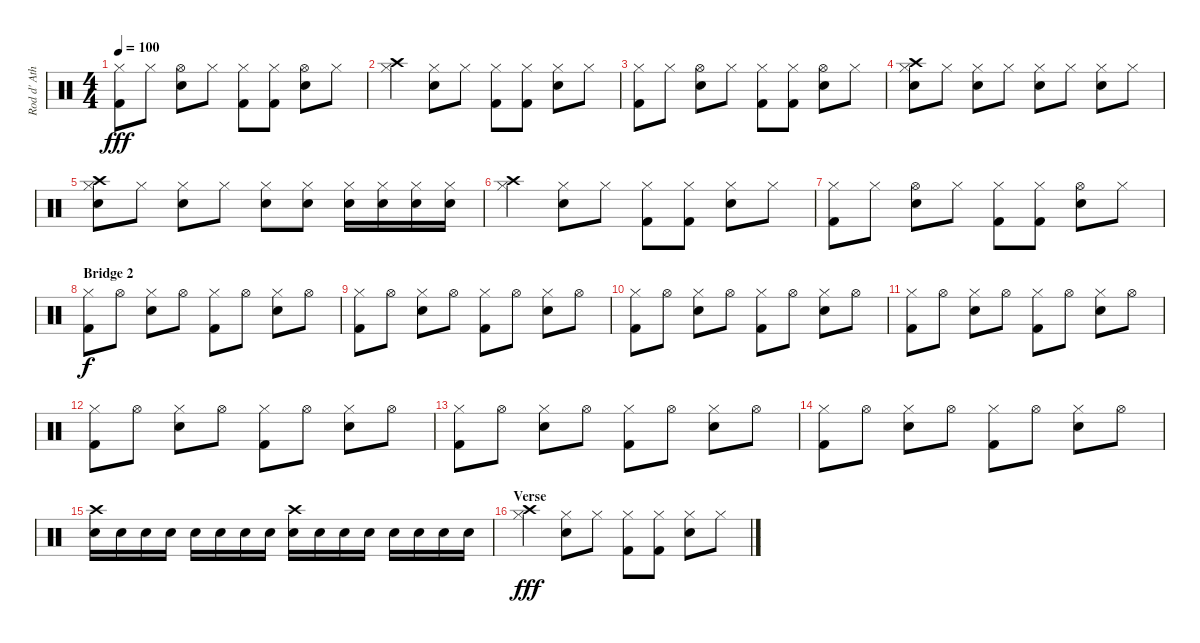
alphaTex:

\track ("Rod d' Ath" "Rod d' Ath") {instrument percussion}
\staff {score}
\articulation defaults
\ts (4 4)
\tempo 100
\clef neutral
\ks c
("Kick (hit) 2" "Hi-Hat (closed)").8{dy fff} "Hi-Hat (closed)".8 ("Hi-Hat (open)" "Snare (hit) 2").8 "Hi-Hat (closed)".8 ("Kick (hit) 2" "Hi-Hat (closed)").8 ("Kick (hit) 2" "Hi-Hat (closed)").8 ("Snare (hit) 2" "Hi-Hat (open)").8 "Hi-Hat (closed)".8 |
("Crash high (hit)" "Hi-Hat (closed)").4 ("Snare (hit) 2" "Hi-Hat (closed)").8 "Hi-Hat (closed)".8 ("Kick (hit) 2" "Hi-Hat (closed)").8 ("Kick (hit) 2" "Hi-Hat (closed)").8 ("Snare (hit) 2" "Hi-Hat (closed)").8 "Hi-Hat (closed)".8 |
("Kick (hit) 2" "Hi-Hat (closed)").8 "Hi-Hat (closed)".8 ("Hi-Hat (open)" "Snare (hit) 2").8 "Hi-Hat (closed)".8 ("Kick (hit) 2" "Hi-Hat (closed)").8 ("Kick (hit) 2" "Hi-Hat (closed)").8 ("Snare (hit) 2" "Hi-Hat (open)").8 "Hi-Hat (closed)".8 |
("Snare (hit) 2" "Hi-Hat (closed)" "Crash high (hit)").8{volume 16} "Hi-Hat (closed)".8 ("Snare (hit) 2" "Hi-Hat (closed)").8 "Hi-Hat (closed)".8 ("Snare (hit) 2" "Hi-Hat (closed)").8 "Hi-Hat (closed)".8 ("Snare (hit) 2" "Hi-Hat (closed)").8 "Hi-Hat (closed)".8 |
("Snare (hit) 2" "Hi-Hat (closed)" "Crash high (hit)").8 "Hi-Hat (closed)".8 ("Snare (hit) 2" "Hi-Hat (closed)").8 "Hi-Hat (closed)".8 ("Snare (hit) 2" "Hi-Hat (closed)").8 ("Snare (hit) 2" "Hi-Hat (closed)").8 ("Snare (hit) 2" "Hi-Hat (closed)").16 ("Snare (hit) 2" "Hi-Hat (closed)").16 ("Snare (hit) 2" "Hi-Hat (closed)").16 ("Snare (hit) 2" "Hi-Hat (closed)").16 |
("Crash high (hit)" "Hi-Hat (closed)").4 ("Snare (hit) 2" "Hi-Hat (closed)").8 "Hi-Hat (closed)".8 ("Kick (hit) 2" "Hi-Hat (closed)").8 ("Kick (hit) 2" "Hi-Hat (closed)").8 ("Snare (hit) 2" "Hi-Hat (closed)").8 "Hi-Hat (closed)".8 |
("Kick (hit) 2" "Hi-Hat (closed)").8 "Hi-Hat (closed)".8 ("Hi-Hat (open)" "Snare (hit) 2").8 "Hi-Hat (closed)".8 ("Kick (hit) 2" "Hi-Hat (closed)").8 ("Kick (hit) 2" "Hi-Hat (closed)").8 ("Snare (hit) 2" "Hi-Hat (open)").8 "Hi-Hat (closed)".8 |
\section ("" "Bridge 2")
("Kick (hit) 2" "Hi-Hat (closed)").8{dy f} "Hi-Hat (open)".8 ("Snare (hit) 2" "Hi-Hat (closed)").8 "Hi-Hat (open)".8 ("Kick (hit) 2" "Hi-Hat (closed)").8 "Hi-Hat (open)".8 ("Snare (hit) 2" "Hi-Hat (closed)").8 "Hi-Hat (open)".8 |
("Kick (hit) 2" "Hi-Hat (closed)").8 "Hi-Hat (open)".8 ("Snare (hit) 2" "Hi-Hat (closed)").8 "Hi-Hat (open)".8 ("Kick (hit) 2" "Hi-Hat (closed)").8 "Hi-Hat (open)".8 ("Snare (hit) 2" "Hi-Hat (closed)").8 "Hi-Hat (open)".8 |
("Kick (hit) 2" "Hi-Hat (closed)").8 "Hi-Hat (open)".8 ("Snare (hit) 2" "Hi-Hat (closed)").8 "Hi-Hat (open)".8 ("Kick (hit) 2" "Hi-Hat (closed)").8 "Hi-Hat (open)".8 ("Snare (hit) 2" "Hi-Hat (closed)").8 "Hi-Hat (open)".8 |
("Kick (hit) 2" "Hi-Hat (closed)").8 "Hi-Hat (open)".8 ("Snare (hit) 2" "Hi-Hat (closed)").8 "Hi-Hat (open)".8 ("Kick (hit) 2" "Hi-Hat (closed)").8 "Hi-Hat (open)".8 ("Snare (hit) 2" "Hi-Hat (closed)").8 "Hi-Hat (open)".8 |
("Kick (hit) 2" "Hi-Hat (closed)").8 "Hi-Hat (open)".8 ("Snare (hit) 2" "Hi-Hat (closed)").8 "Hi-Hat (open)".8 ("Kick (hit) 2" "Hi-Hat (closed)").8 "Hi-Hat (open)".8 ("Snare (hit) 2" "Hi-Hat (closed)").8 "Hi-Hat (open)".8 |
("Kick (hit) 2" "Hi-Hat (closed)").8 "Hi-Hat (open)".8 ("Snare (hit) 2" "Hi-Hat (closed)").8 "Hi-Hat (open)".8 ("Kick (hit) 2" "Hi-Hat (closed)").8 "Hi-Hat (open)".8 ("Snare (hit) 2" "Hi-Hat (closed)").8 "Hi-Hat (open)".8 |
("Kick (hit) 2" "Hi-Hat (closed)").8 "Hi-Hat (open)".8 ("Snare (hit) 2" "Hi-Hat (closed)").8 "Hi-Hat (open)".8 ("Kick (hit) 2" "Hi-Hat (closed)").8 "Hi-Hat (open)".8 ("Snare (hit) 2" "Hi-Hat (closed)").8 "Hi-Hat (open)".8 |
("Crash high (hit)" "Snare (hit) 2").16{balance 16} "Snare (hit) 2".16 "Snare (hit) 2".16 "Snare (hit) 2".16 "Snare (hit) 2".16 "Snare (hit) 2".16 "Snare (hit) 2".16 "Snare (hit) 2".16 ("Crash high (hit)" "Snare (hit) 2").16{balance 1} "Snare (hit) 2".16 "Snare (hit) 2".16 "Snare (hit) 2".16 "Snare (hit) 2".16 "Snare (hit) 2".16 "Snare (hit) 2".16 "Snare (hit) 2".16 |
\section ("" "Verse")
("Crash high (hit)" "Hi-Hat (closed)").4{dy fff} ("Snare (hit) 2" "Hi-Hat (closed)").8 "Hi-Hat (closed)".8 ("Kick (hit) 2" "Hi-Hat (closed)").8 ("Kick (hit) 2" "Hi-Hat (closed)").8 ("Snare (hit) 2" "Hi-Hat (closed)").8 "Hi-Hat (closed)".8
